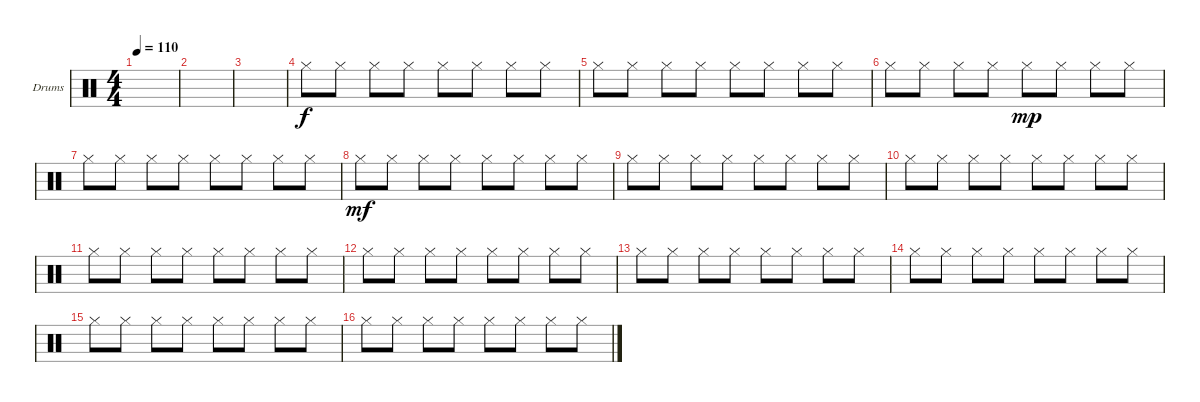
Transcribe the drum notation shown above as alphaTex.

\defaultSystemsLayout 4
\bracketExtendMode groupsimilarinstruments
\firstSystemTrackNameOrientation horizontal
\otherSystemsTrackNameOrientation horizontal
\track ("Brum auxiliar" "Drums") {instrument percussion}
\staff {score}
\articulation defaults
\ts (4 4)
\tempo 110
\clef neutral
\scale
0.474178
\ks c
|
\scale
0.262911 |
\scale
0.262911 |
\scale
0.333333 "Hi-Hat (closed)".8 "Hi-Hat (closed)".8 "Hi-Hat (closed)".8 "Hi-Hat (closed)".8 "Hi-Hat (closed)".8 "Hi-Hat (closed)".8 "Hi-Hat (closed)".8 "Hi-Hat (closed)".8 |
\scale
0.333333 "Hi-Hat (closed)".8 "Hi-Hat (closed)".8 "Hi-Hat (closed)".8 "Hi-Hat (closed)".8 "Hi-Hat (closed)".8 "Hi-Hat (closed)".8 "Hi-Hat (closed)".8 "Hi-Hat (closed)".8 |
\scale
0.333333 "Hi-Hat (closed)".8 "Hi-Hat (closed)".8 "Hi-Hat (closed)".8 "Hi-Hat (closed)".8 "Hi-Hat (closed)".8{dy mp} "Hi-Hat (closed)".8 "Hi-Hat (closed)".8 "Hi-Hat (closed)".8 |
\scale
0.333333 "Hi-Hat (closed)".8 "Hi-Hat (closed)".8 "Hi-Hat (closed)".8 "Hi-Hat (closed)".8 "Hi-Hat (closed)".8 "Hi-Hat (closed)".8 "Hi-Hat (closed)".8 "Hi-Hat (closed)".8 |
\scale
0.333333 "Hi-Hat (closed)".8{dy mf} "Hi-Hat (closed)".8 "Hi-Hat (closed)".8 "Hi-Hat (closed)".8 "Hi-Hat (closed)".8 "Hi-Hat (closed)".8 "Hi-Hat (closed)".8 "Hi-Hat (closed)".8 |
\scale
0.333333 "Hi-Hat (closed)".8 "Hi-Hat (closed)".8 "Hi-Hat (closed)".8 "Hi-Hat (closed)".8 "Hi-Hat (closed)".8 "Hi-Hat (closed)".8 "Hi-Hat (closed)".8 "Hi-Hat (closed)".8 |
\scale
0.333333 "Hi-Hat (closed)".8 "Hi-Hat (closed)".8 "Hi-Hat (closed)".8 "Hi-Hat (closed)".8 "Hi-Hat (closed)".8 "Hi-Hat (closed)".8 "Hi-Hat (closed)".8 "Hi-Hat (closed)".8 |
\scale
0.333333 "Hi-Hat (closed)".8 "Hi-Hat (closed)".8 "Hi-Hat (closed)".8 "Hi-Hat (closed)".8 "Hi-Hat (closed)".8 "Hi-Hat (closed)".8 "Hi-Hat (closed)".8 "Hi-Hat (closed)".8 |
\scale
0.333333 "Hi-Hat (closed)".8 "Hi-Hat (closed)".8 "Hi-Hat (closed)".8 "Hi-Hat (closed)".8 "Hi-Hat (closed)".8 "Hi-Hat (closed)".8 "Hi-Hat (closed)".8 "Hi-Hat (closed)".8 |
\scale
0.333333 "Hi-Hat (closed)".8 "Hi-Hat (closed)".8 "Hi-Hat (closed)".8 "Hi-Hat (closed)".8 "Hi-Hat (closed)".8 "Hi-Hat (closed)".8 "Hi-Hat (closed)".8 "Hi-Hat (closed)".8 |
\scale
0.333333 "Hi-Hat (closed)".8 "Hi-Hat (closed)".8 "Hi-Hat (closed)".8 "Hi-Hat (closed)".8 "Hi-Hat (closed)".8 "Hi-Hat (closed)".8 "Hi-Hat (closed)".8 "Hi-Hat (closed)".8 |
\scale
0.333333 "Hi-Hat (closed)".8 "Hi-Hat (closed)".8 "Hi-Hat (closed)".8 "Hi-Hat (closed)".8 "Hi-Hat (closed)".8 "Hi-Hat (closed)".8 "Hi-Hat (closed)".8 "Hi-Hat (closed)".8 |
\scale
0.333333 "Hi-Hat (closed)".8 "Hi-Hat (closed)".8 "Hi-Hat (closed)".8 "Hi-Hat (closed)".8 "Hi-Hat (closed)".8 "Hi-Hat (closed)".8 "Hi-Hat (closed)".8 "Hi-Hat (closed)".8
